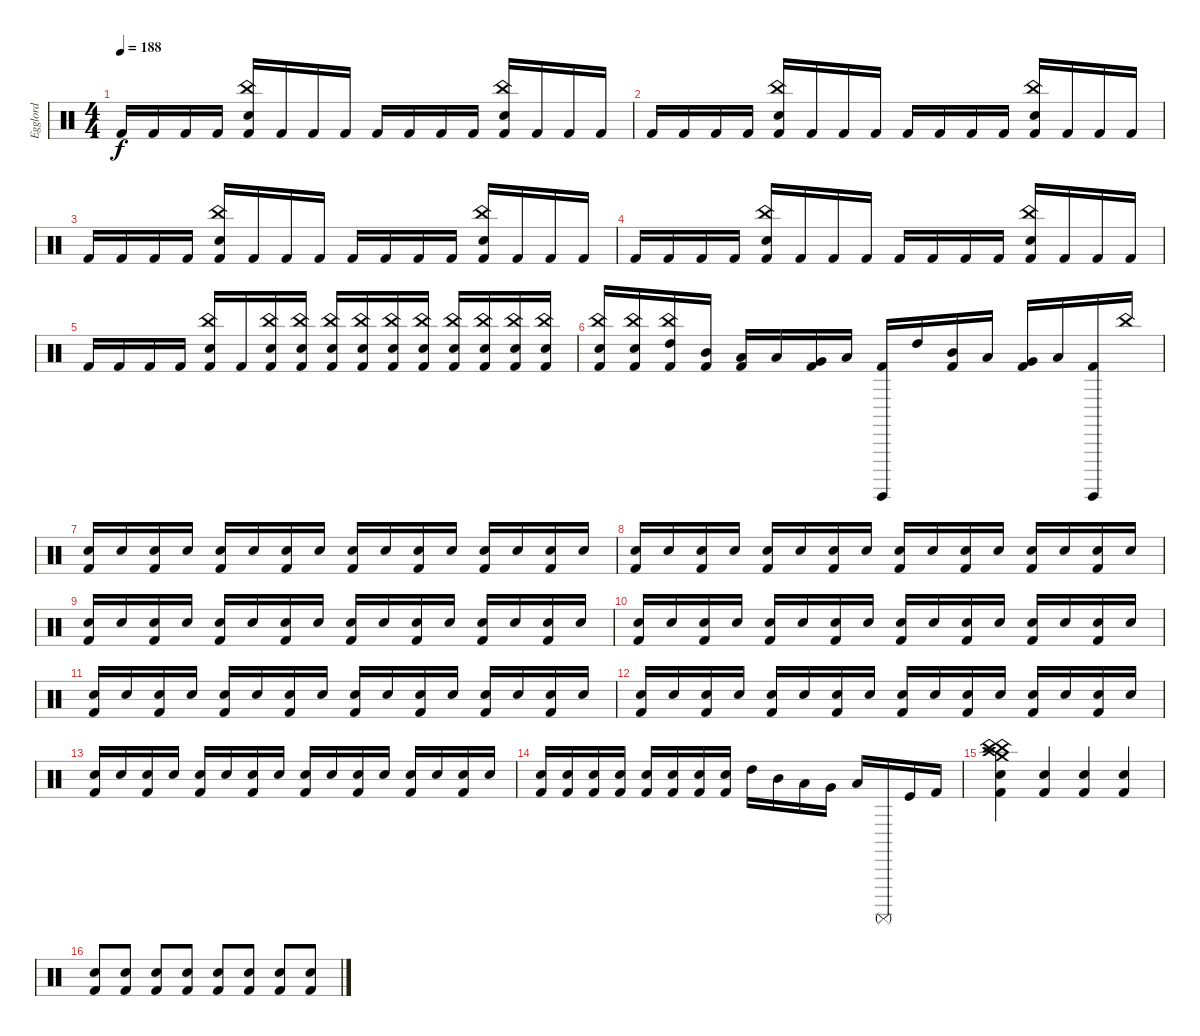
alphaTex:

\track ("Egglord" "Egglord") {instrument percussion}
\staff {score}
\articulation defaults
\ts (4 4)
\tempo 188
\clef neutral
\ks c "Kick (hit) 2".16{dy f} "Kick (hit) 2".16 "Kick (hit) 2".16 "Kick (hit) 2".16
("China (hit)" "Electric Snare (hit)" "Kick (hit) 2").16 "Kick (hit) 2".16 "Kick (hit) 2".16 "Kick (hit) 2".16 "Kick (hit) 2".16 "Kick (hit) 2".16 "Kick (hit) 2".16 "Kick (hit) 2".16 ("China (hit)" "Electric Snare (hit)" "Kick (hit) 2").16 "Kick (hit) 2".16 "Kick (hit) 2".16 "Kick (hit) 2".16 |
"Kick (hit) 2".16 "Kick (hit) 2".16 "Kick (hit) 2".16 "Kick (hit) 2".16 ("China (hit)" "Electric Snare (hit)" "Kick (hit) 2").16 "Kick (hit) 2".16 "Kick (hit) 2".16 "Kick (hit) 2".16 "Kick (hit) 2".16 "Kick (hit) 2".16 "Kick (hit) 2".16 "Kick (hit) 2".16 ("China (hit)" "Electric Snare (hit)" "Kick (hit) 2").16 "Kick (hit) 2".16 "Kick (hit) 2".16 "Kick (hit) 2".16 |
"Kick (hit) 2".16 "Kick (hit) 2".16 "Kick (hit) 2".16 "Kick (hit) 2".16 ("China (hit)" "Electric Snare (hit)" "Kick (hit) 2").16 "Kick (hit) 2".16 "Kick (hit) 2".16 "Kick (hit) 2".16 "Kick (hit) 2".16 "Kick (hit) 2".16 "Kick (hit) 2".16 "Kick (hit) 2".16 ("China (hit)" "Electric Snare (hit)" "Kick (hit) 2").16 "Kick (hit) 2".16 "Kick (hit) 2".16 "Kick (hit) 2".16 |
"Kick (hit) 2".16 "Kick (hit) 2".16 "Kick (hit) 2".16 "Kick (hit) 2".16 ("China (hit)" "Electric Snare (hit)" "Kick (hit) 2").16 "Kick (hit) 2".16 "Kick (hit) 2".16 "Kick (hit) 2".16 "Kick (hit) 2".16 "Kick (hit) 2".16 "Kick (hit) 2".16 "Kick (hit) 2".16 ("China (hit)" "Electric Snare (hit)" "Kick (hit) 2").16 "Kick (hit) 2".16 "Kick (hit) 2".16 "Kick (hit) 2".16 |
"Kick (hit) 2".16 "Kick (hit) 2".16 "Kick (hit) 2".16 "Kick (hit) 2".16 ("China (hit)" "Electric Snare (hit)" "Kick (hit) 2").16 "Kick (hit) 2".16 ("China (hit)" "Electric Snare (hit)" "Kick (hit) 2").16 ("China (hit)" "Snare (hit)" "Kick (hit) 2").16 ("China (hit)" "Electric Snare (hit)" "Kick (hit) 2").16 ("China (hit)" "Electric Snare (hit)" "Kick (hit) 2").16 ("China (hit)" "Electric Snare (hit)" "Kick (hit) 2").16 ("China (hit)" "Electric Snare (hit)" "Kick (hit) 2").16 ("China (hit)" "Electric Snare (hit)" "Kick (hit) 2").16 ("China (hit)" "Electric Snare (hit)" "Kick (hit) 2").16 ("China (hit)" "Electric Snare (hit)" "Kick (hit) 2").16 ("China (hit)" "Electric Snare (hit)" "Kick (hit) 2").16 |
("China (hit)" "Electric Snare (hit)" "Kick (hit) 2").16 ("China (hit)" "Electric Snare (hit)" "Kick (hit) 2").16 ("China (hit)" "High Tom (hit)" "Kick (hit) 2").16 ("Mid Tom (hit)" "Kick (hit) 2").16 ("Low Tom (hit)" "Kick (hit) 2").16 "Low Tom (hit)".16 ("Very Low Tom (hit)" "Kick (hit) 2").16 "Low Floor Tom (hit)".16 ("Surdo (hit)" "Kick (hit) 2").16 "High Tom (hit)".16 ("Mid Tom (hit)" "Kick (hit) 2").16 "Low Tom (hit)".16 ("Very Low Tom (hit)" "Kick (hit) 2").16 "Low Floor Tom (hit)".16 ("Surdo (hit)" "Kick (hit) 2").16 "China (hit)".16 |
("Electric Snare (hit)" "Kick (hit) 2").16 "Electric Snare (hit)".16 ("Electric Snare (hit)" "Kick (hit) 2").16 "Electric Snare (hit)".16 ("Electric Snare (hit)" "Kick (hit) 2").16 "Electric Snare (hit)".16 ("Electric Snare (hit)" "Kick (hit) 2").16 "Electric Snare (hit)".16 ("Electric Snare (hit)" "Kick (hit) 2").16 "Electric Snare (hit)".16 ("Electric Snare (hit)" "Kick (hit) 2").16 "Electric Snare (hit)".16 ("Electric Snare (hit)" "Kick (hit) 2").16 "Electric Snare (hit)".16 ("Electric Snare (hit)" "Kick (hit) 2").16 "Electric Snare (hit)".16 |
("Electric Snare (hit)" "Kick (hit) 2").16 "Electric Snare (hit)".16 ("Electric Snare (hit)" "Kick (hit) 2").16 "Electric Snare (hit)".16 ("Electric Snare (hit)" "Kick (hit) 2").16 "Electric Snare (hit)".16 ("Electric Snare (hit)" "Kick (hit) 2").16 "Electric Snare (hit)".16 ("Electric Snare (hit)" "Kick (hit) 2").16 "Electric Snare (hit)".16 ("Electric Snare (hit)" "Kick (hit) 2").16 "Electric Snare (hit)".16 ("Electric Snare (hit)" "Kick (hit) 2").16 "Electric Snare (hit)".16 ("Electric Snare (hit)" "Kick (hit) 2").16 "Electric Snare (hit)".16 |
("Electric Snare (hit)" "Kick (hit) 2").16 "Electric Snare (hit)".16 ("Electric Snare (hit)" "Kick (hit) 2").16 "Electric Snare (hit)".16 ("Electric Snare (hit)" "Kick (hit) 2").16 "Electric Snare (hit)".16 ("Electric Snare (hit)" "Kick (hit) 2").16 "Electric Snare (hit)".16 ("Electric Snare (hit)" "Kick (hit) 2").16 "Electric Snare (hit)".16 ("Electric Snare (hit)" "Kick (hit) 2").16 "Electric Snare (hit)".16 ("Electric Snare (hit)" "Kick (hit) 2").16 "Electric Snare (hit)".16 ("Electric Snare (hit)" "Kick (hit) 2").16 "Electric Snare (hit)".16 |
("Electric Snare (hit)" "Kick (hit) 2").16 "Electric Snare (hit)".16 ("Electric Snare (hit)" "Kick (hit) 2").16 "Electric Snare (hit)".16 ("Electric Snare (hit)" "Kick (hit) 2").16 "Electric Snare (hit)".16 ("Electric Snare (hit)" "Kick (hit) 2").16 "Electric Snare (hit)".16 ("Electric Snare (hit)" "Kick (hit) 2").16 "Electric Snare (hit)".16 ("Electric Snare (hit)" "Kick (hit) 2").16 "Electric Snare (hit)".16 ("Electric Snare (hit)" "Kick (hit) 2").16 "Electric Snare (hit)".16 ("Electric Snare (hit)" "Kick (hit) 2").16 "Electric Snare (hit)".16 |
("Electric Snare (hit)" "Kick (hit) 2").16 "Electric Snare (hit)".16 ("Electric Snare (hit)" "Kick (hit) 2").16 "Electric Snare (hit)".16 ("Electric Snare (hit)" "Kick (hit) 2").16 "Electric Snare (hit)".16 ("Electric Snare (hit)" "Kick (hit) 2").16 "Electric Snare (hit)".16 ("Electric Snare (hit)" "Kick (hit) 2").16 "Electric Snare (hit)".16 ("Electric Snare (hit)" "Kick (hit) 2").16 "Electric Snare (hit)".16 ("Electric Snare (hit)" "Kick (hit) 2").16 "Electric Snare (hit)".16 ("Electric Snare (hit)" "Kick (hit) 2").16 "Electric Snare (hit)".16 |
("Electric Snare (hit)" "Kick (hit) 2").16 "Electric Snare (hit)".16 ("Electric Snare (hit)" "Kick (hit) 2").16 "Electric Snare (hit)".16 ("Electric Snare (hit)" "Kick (hit) 2").16 "Electric Snare (hit)".16 ("Electric Snare (hit)" "Kick (hit) 2").16 "Electric Snare (hit)".16 ("Electric Snare (hit)" "Kick (hit) 2").16 "Electric Snare (hit)".16 ("Electric Snare (hit)" "Kick (hit) 2").16 "Electric Snare (hit)".16 ("Electric Snare (hit)" "Kick (hit) 2").16 "Electric Snare (hit)".16 ("Electric Snare (hit)" "Kick (hit) 2").16 "Electric Snare (hit)".16 |
("Electric Snare (hit)" "Kick (hit) 2").16 "Electric Snare (hit)".16 ("Electric Snare (hit)" "Kick (hit) 2").16 "Electric Snare (hit)".16 ("Electric Snare (hit)" "Kick (hit) 2").16 "Electric Snare (hit)".16 ("Electric Snare (hit)" "Kick (hit) 2").16 "Electric Snare (hit)".16 ("Electric Snare (hit)" "Kick (hit) 2").16 "Electric Snare (hit)".16 ("Electric Snare (hit)" "Kick (hit) 2").16 "Electric Snare (hit)".16 ("Electric Snare (hit)" "Kick (hit) 2").16 "Electric Snare (hit)".16 ("Electric Snare (hit)" "Kick (hit) 2").16 "Electric Snare (hit)".16 |
("Electric Snare (hit)" "Kick (hit) 2").16 ("Electric Snare (hit)" "Kick (hit) 2").16 ("Electric Snare (hit)" "Kick (hit) 2").16 ("Electric Snare (hit)" "Kick (hit) 2").16 ("Electric Snare (hit)" "Kick (hit) 2").16 ("Electric Snare (hit)" "Kick (hit) 2").16 ("Electric Snare (hit)" "Kick (hit) 2").16 ("Electric Snare (hit)" "Kick (hit) 2").16 "High Tom (hit)".16 "Mid Tom (hit)".16 "Low Tom (hit)".16 "Very Low Tom (hit)".16 "Low Floor Tom (hit)".16 "Surdo (mute)".16 "Kick (hit)".16 "Kick (hit) 2".16 |
("China (hit)" "China (hit)" "Crash high (hit)" "Crash medium (hit)" "Electric Snare (hit)" "Kick (hit) 2").4 ("Electric Snare (hit)" "Kick (hit) 2").4 ("Electric Snare (hit)" "Kick (hit) 2").4 ("Electric Snare (hit)" "Kick (hit) 2").4 |
("Electric Snare (hit)" "Kick (hit) 2").8 ("Electric Snare (hit)" "Kick (hit) 2").8 ("Electric Snare (hit)" "Kick (hit) 2").8 ("Electric Snare (hit)" "Kick (hit) 2").8 ("Electric Snare (hit)" "Kick (hit) 2").8 ("Electric Snare (hit)" "Kick (hit) 2").8 ("Electric Snare (hit)" "Kick (hit) 2").8 ("Electric Snare (hit)" "Kick (hit) 2").8
